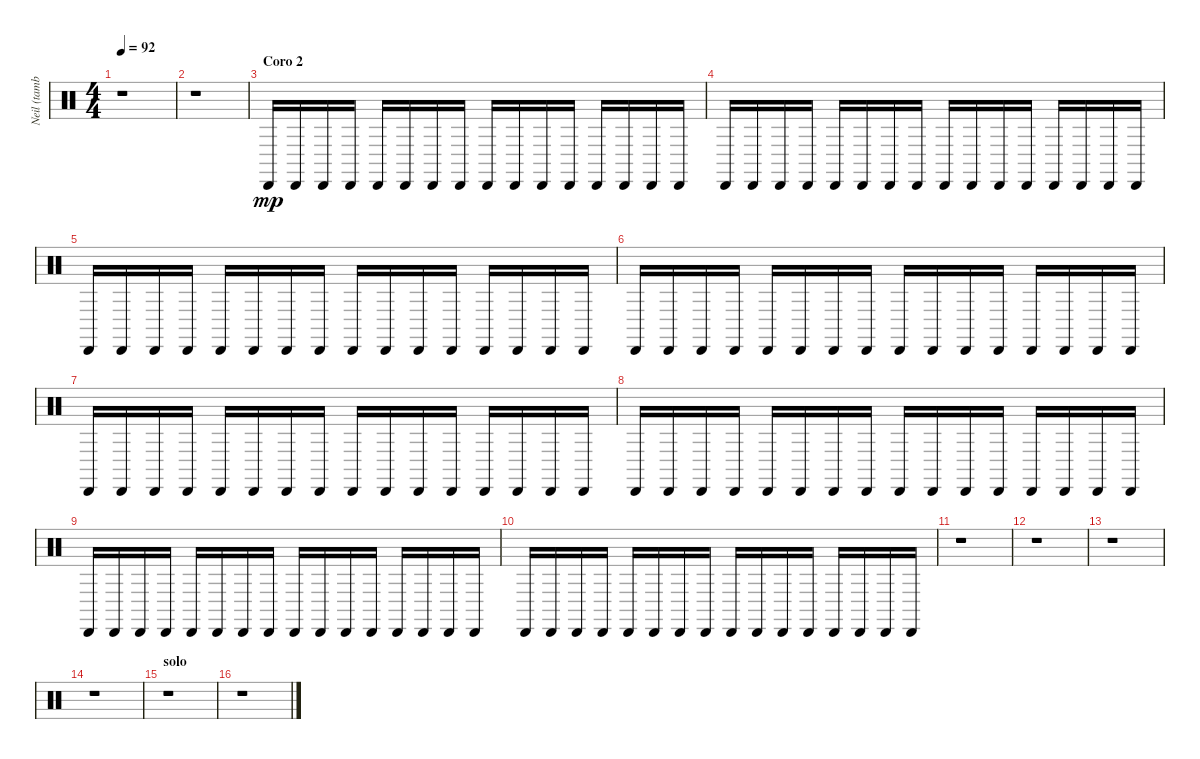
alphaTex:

\track ("Neil (tambourine)" "Neil (tamb") {instrument percussion}
\staff {score}
\articulation defaults
\ts (4 4)
\tempo 92
\clef neutral
\ks c
r.1{dy mp} |
r.1 |
\section ("" "Coro 2")
"Cabasa (hit)".16 "Cabasa (hit)".16 "Cabasa (hit)".16 "Cabasa (hit)".16 "Cabasa (hit)".16 "Cabasa (hit)".16 "Cabasa (hit)".16 "Cabasa (hit)".16 "Cabasa (hit)".16 "Cabasa (hit)".16 "Cabasa (hit)".16 "Cabasa (hit)".16 "Cabasa (hit)".16 "Cabasa (hit)".16 "Cabasa (hit)".16 "Cabasa (hit)".16 |
"Cabasa (hit)".16 "Cabasa (hit)".16 "Cabasa (hit)".16 "Cabasa (hit)".16 "Cabasa (hit)".16 "Cabasa (hit)".16 "Cabasa (hit)".16 "Cabasa (hit)".16 "Cabasa (hit)".16 "Cabasa (hit)".16 "Cabasa (hit)".16 "Cabasa (hit)".16 "Cabasa (hit)".16 "Cabasa (hit)".16 "Cabasa (hit)".16 "Cabasa (hit)".16 |
"Cabasa (hit)".16 "Cabasa (hit)".16 "Cabasa (hit)".16 "Cabasa (hit)".16 "Cabasa (hit)".16 "Cabasa (hit)".16 "Cabasa (hit)".16 "Cabasa (hit)".16 "Cabasa (hit)".16 "Cabasa (hit)".16 "Cabasa (hit)".16 "Cabasa (hit)".16 "Cabasa (hit)".16 "Cabasa (hit)".16 "Cabasa (hit)".16 "Cabasa (hit)".16 |
"Cabasa (hit)".16 "Cabasa (hit)".16 "Cabasa (hit)".16 "Cabasa (hit)".16 "Cabasa (hit)".16 "Cabasa (hit)".16 "Cabasa (hit)".16 "Cabasa (hit)".16 "Cabasa (hit)".16 "Cabasa (hit)".16 "Cabasa (hit)".16 "Cabasa (hit)".16 "Cabasa (hit)".16 "Cabasa (hit)".16 "Cabasa (hit)".16 "Cabasa (hit)".16 |
"Cabasa (hit)".16 "Cabasa (hit)".16 "Cabasa (hit)".16 "Cabasa (hit)".16 "Cabasa (hit)".16 "Cabasa (hit)".16 "Cabasa (hit)".16 "Cabasa (hit)".16 "Cabasa (hit)".16 "Cabasa (hit)".16 "Cabasa (hit)".16 "Cabasa (hit)".16 "Cabasa (hit)".16 "Cabasa (hit)".16 "Cabasa (hit)".16 "Cabasa (hit)".16 |
"Cabasa (hit)".16 "Cabasa (hit)".16 "Cabasa (hit)".16 "Cabasa (hit)".16 "Cabasa (hit)".16 "Cabasa (hit)".16 "Cabasa (hit)".16 "Cabasa (hit)".16 "Cabasa (hit)".16 "Cabasa (hit)".16 "Cabasa (hit)".16 "Cabasa (hit)".16 "Cabasa (hit)".16 "Cabasa (hit)".16 "Cabasa (hit)".16 "Cabasa (hit)".16 |
"Cabasa (hit)".16 "Cabasa (hit)".16 "Cabasa (hit)".16 "Cabasa (hit)".16 "Cabasa (hit)".16 "Cabasa (hit)".16 "Cabasa (hit)".16 "Cabasa (hit)".16 "Cabasa (hit)".16 "Cabasa (hit)".16 "Cabasa (hit)".16 "Cabasa (hit)".16 "Cabasa (hit)".16 "Cabasa (hit)".16 "Cabasa (hit)".16 "Cabasa (hit)".16 |
"Cabasa (hit)".16 "Cabasa (hit)".16 "Cabasa (hit)".16 "Cabasa (hit)".16 "Cabasa (hit)".16 "Cabasa (hit)".16 "Cabasa (hit)".16 "Cabasa (hit)".16 "Cabasa (hit)".16 "Cabasa (hit)".16 "Cabasa (hit)".16 "Cabasa (hit)".16 "Cabasa (hit)".16 "Cabasa (hit)".16 "Cabasa (hit)".16 "Cabasa (hit)".16 |
r.1 |
r.1 |
r.1 |
r.1 |
\section ("" "solo")
r.1 |
r.1
